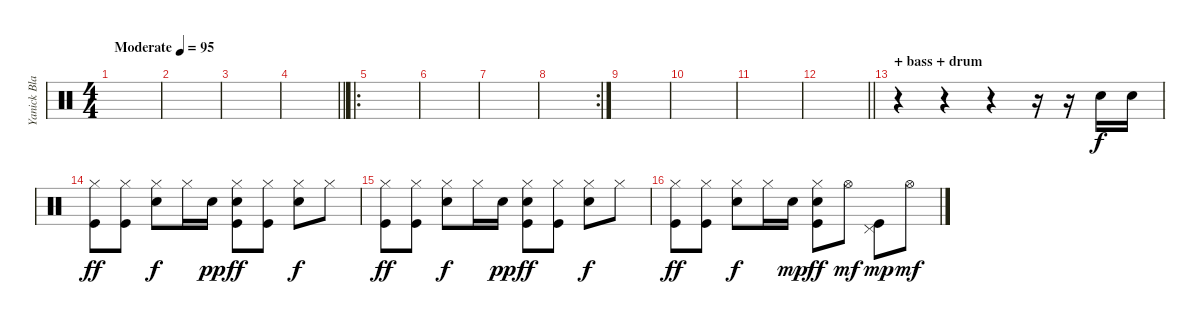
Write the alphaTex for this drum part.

\track ("Yanick Blanchette" "Yanick Bla") {instrument percussion}
\staff {score}
\articulation defaults
\ts (4 4)
\tempo (95 "Moderate")
\clef neutral
\ks c
|
|
|
\barLineRight lightlight
|
\ro
|
|
|
\rc 2
|
|
|
|
\barLineRight lightlight
|
\section ("" "+ bass + drum")
r.4 r.4 r.4 r.16 r.16 "Snare (hit) 2".16 "Snare (hit) 2".16 |
("Hi-Hat (closed)" "Kick (hit)").8{dy ff} ("Hi-Hat (closed)" "Kick (hit)").8 ("Hi-Hat (closed)" "Snare (hit) 2").8{dy f} "Hi-Hat (closed)".16 "Snare (hit) 2".16{dy pp} ("Hi-Hat (closed)" "Snare (hit) 2" "Kick (hit)").8{dy ff} ("Hi-Hat (closed)" "Kick (hit)").8 ("Hi-Hat (closed)" "Snare (hit) 2").8{dy f} "Hi-Hat (closed)".8 |
("Hi-Hat (closed)" "Kick (hit)").8{dy ff} ("Hi-Hat (closed)" "Kick (hit)").8 ("Hi-Hat (closed)" "Snare (hit) 2").8{dy f} "Hi-Hat (closed)".16 "Snare (hit) 2".16{dy pp} ("Hi-Hat (closed)" "Snare (hit) 2" "Kick (hit)").8{dy ff} ("Hi-Hat (closed)" "Kick (hit)").8 ("Hi-Hat (closed)" "Snare (hit) 2").8{dy f} "Hi-Hat (closed)".8 |
("Hi-Hat (closed)" "Kick (hit)").8{dy ff} ("Hi-Hat (closed)" "Kick (hit)").8 ("Hi-Hat (closed)" "Snare (hit) 2").8{dy f} "Hi-Hat (closed)".16 "Snare (hit) 2".16{dy mp} ("Hi-Hat (closed)" "Snare (hit) 2" "Kick (hit)").8{dy ff} "Hi-Hat (open)".8{dy mf} ("Pedal Hi-Hat (hit)" "Kick (hit)").8{dy mp} "Hi-Hat (open)".8{dy mf}
